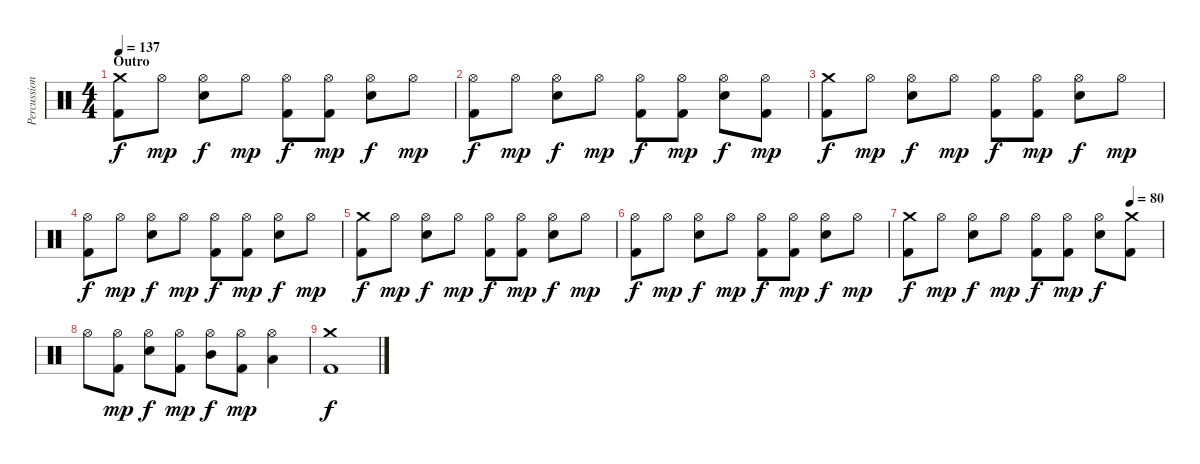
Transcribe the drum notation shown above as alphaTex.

\track ("Percussion" "Percussion") {instrument percussion}
\staff {score}
\articulation defaults
\ts (4 4)
\section ("" "Outro")
\tempo 137
\clef neutral
\ks c
("Crash medium (hit)" "Kick (hit) 2").8{dy f} "Hi-Hat (open)".8{dy mp} ("Hi-Hat (open)" "Electric Snare (hit)").8{dy f} "Hi-Hat (open)".8{dy mp} ("Hi-Hat (open)" "Kick (hit) 2").8{dy f} ("Hi-Hat (open)" "Kick (hit) 2").8{dy mp} ("Hi-Hat (open)" "Electric Snare (hit)").8{dy f} "Hi-Hat (open)".8{dy mp} |
("Hi-Hat (open)" "Kick (hit) 2").8{dy f} "Hi-Hat (open)".8{dy mp} ("Hi-Hat (open)" "Electric Snare (hit)").8{dy f} "Hi-Hat (open)".8{dy mp} ("Hi-Hat (open)" "Kick (hit) 2").8{dy f} ("Hi-Hat (open)" "Kick (hit) 2").8{dy mp} ("Hi-Hat (open)" "Electric Snare (hit)").8{dy f} ("Hi-Hat (open)" "Kick (hit) 2").8{dy mp} |
("Crash medium (hit)" "Kick (hit) 2").8{dy f} "Hi-Hat (open)".8{dy mp} ("Hi-Hat (open)" "Electric Snare (hit)").8{dy f} "Hi-Hat (open)".8{dy mp} ("Hi-Hat (open)" "Kick (hit) 2").8{dy f} ("Hi-Hat (open)" "Kick (hit) 2").8{dy mp} ("Hi-Hat (open)" "Electric Snare (hit)").8{dy f} "Hi-Hat (open)".8{dy mp} |
("Hi-Hat (open)" "Kick (hit) 2").8{dy f} "Hi-Hat (open)".8{dy mp} ("Hi-Hat (open)" "Electric Snare (hit)").8{dy f} "Hi-Hat (open)".8{dy mp} ("Hi-Hat (open)" "Kick (hit) 2").8{dy f} ("Hi-Hat (open)" "Kick (hit) 2").8{dy mp} ("Hi-Hat (open)" "Electric Snare (hit)").8{dy f} "Hi-Hat (open)".8{dy mp} |
("Crash medium (hit)" "Kick (hit) 2").8{dy f} "Hi-Hat (open)".8{dy mp} ("Hi-Hat (open)" "Electric Snare (hit)").8{dy f} "Hi-Hat (open)".8{dy mp} ("Hi-Hat (open)" "Kick (hit) 2").8{dy f} ("Hi-Hat (open)" "Kick (hit) 2").8{dy mp} ("Hi-Hat (open)" "Electric Snare (hit)").8{dy f} "Hi-Hat (open)".8{dy mp} |
("Hi-Hat (open)" "Kick (hit) 2").8{dy f} "Hi-Hat (open)".8{dy mp} ("Hi-Hat (open)" "Electric Snare (hit)").8{dy f} "Hi-Hat (open)".8{dy mp} ("Hi-Hat (open)" "Kick (hit) 2").8{dy f} ("Hi-Hat (open)" "Kick (hit) 2").8{dy mp} ("Hi-Hat (open)" "Electric Snare (hit)").8{dy f} "Hi-Hat (open)".8{dy mp} |
\tempo (80 0.875)
("Crash medium (hit)" "Kick (hit) 2").8{dy f} "Hi-Hat (open)".8{dy mp} ("Hi-Hat (open)" "Electric Snare (hit)").8{dy f} "Hi-Hat (open)".8{dy mp} ("Hi-Hat (open)" "Kick (hit) 2").8{dy f} ("Hi-Hat (open)" "Kick (hit) 2").8{dy mp} ("Hi-Hat (open)" "Electric Snare (hit)").8{dy f} ("Crash medium (hit)" "Kick (hit) 2").8 |
"Hi-Hat (open)".8 ("Hi-Hat (open)" "Kick (hit) 2").8{dy mp} ("Hi-Hat (open)" "Electric Snare (hit)").8{dy f} ("Hi-Hat (open)" "Kick (hit) 2").8{dy mp} ("Hi-Hat (open)" "Mid Tom (hit)").8{dy f} ("Hi-Hat (open)" "Kick (hit) 2").8{dy mp} ("Hi-Hat (open)" "Low Tom (hit)").4 |
("Crash medium (hit)" "Kick (hit) 2").1{dy f}
